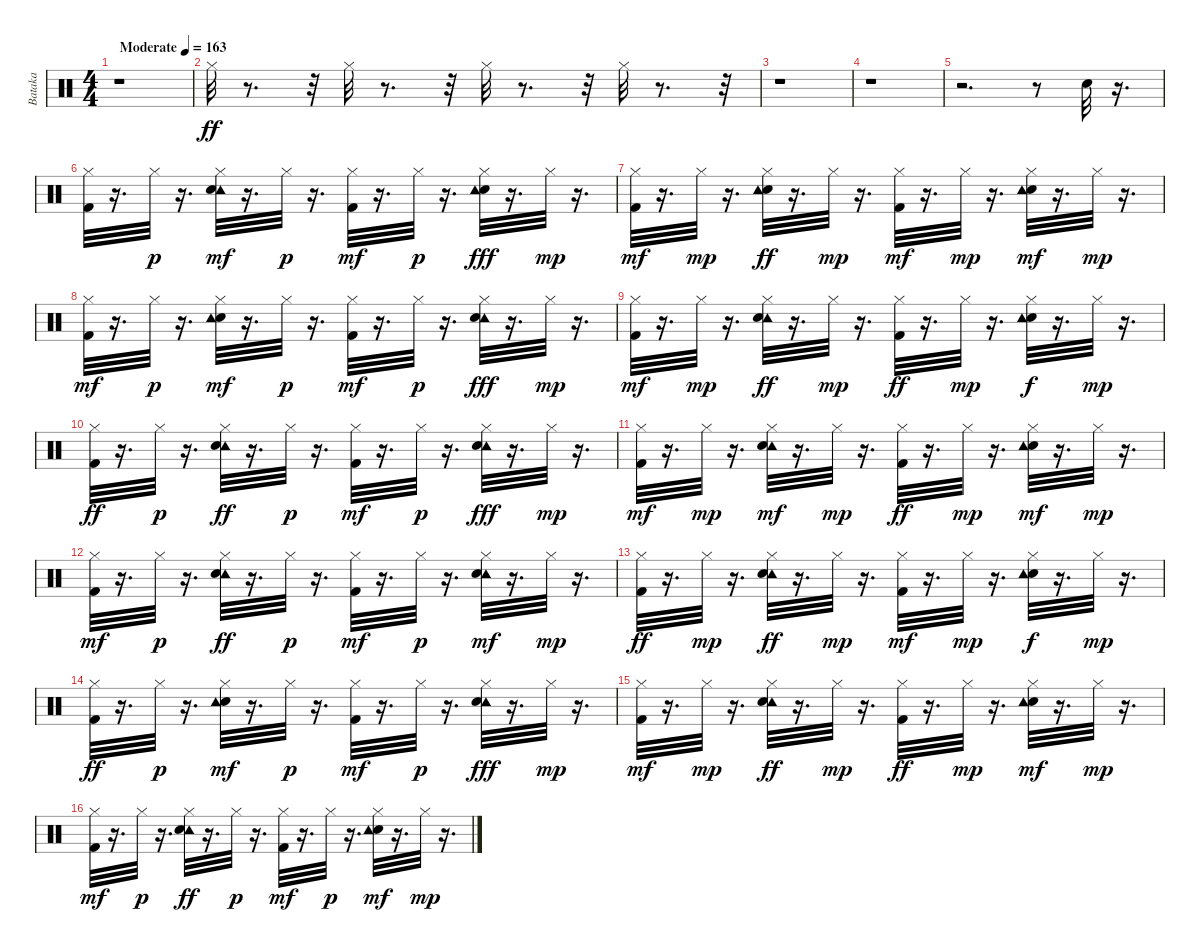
\track ("Bataka" "Bataka") {instrument percussion}
\staff {score}
\articulation defaults
\ts (4 4)
\tempo (163 "Moderate")
\clef neutral
\ks c
r.1{dy ff} |
"Hi-Hat (closed)".32{volume 14} r.8{d} r.32 "Hi-Hat (closed)".32 r.8{d} r.32 "Hi-Hat (closed)".32 r.8{d} r.32 "Hi-Hat (closed)".32 r.8{d} r.32 |
r.1 |
r.1 |
r.2{d} r.8 "Electric Snare (hit)".32 r.16{d} |
("Hi-Hat (closed)" "Kick (hit) 2").32 r.16{d} "Hi-Hat (closed)".32{dy p} r.16{d} ("Tambourine (hit)" "Electric Snare (hit)" "Hi-Hat (closed)").32{dy mf} r.16{d} "Hi-Hat (closed)".32{dy p} r.16{d} ("Hi-Hat (closed)" "Kick (hit) 2").32{dy mf} r.16{d} "Hi-Hat (closed)".32{dy p} r.16{d} ("Hi-Hat (closed)" "Electric Snare (hit)" "Tambourine (hit)").32{dy fff} r.16{d} "Hi-Hat (closed)".32{dy mp} r.16{d} |
("Kick (hit) 2" "Hi-Hat (closed)").32{dy mf} r.16{d} "Hi-Hat (closed)".32{dy mp} r.16{d} ("Electric Snare (hit)" "Hi-Hat (closed)" "Tambourine (hit)").32{dy ff} r.16{d} "Hi-Hat (closed)".32{dy mp} r.16{d} ("Kick (hit) 2" "Hi-Hat (closed)").32{dy mf} r.16{d} "Hi-Hat (closed)".32{dy mp} r.16{d} ("Electric Snare (hit)" "Tambourine (hit)" "Hi-Hat (closed)").32{dy mf} r.16{d} "Hi-Hat (closed)".32{dy mp} r.16{d} |
("Hi-Hat (closed)" "Kick (hit) 2").32{dy mf} r.16{d} "Hi-Hat (closed)".32{dy p} r.16{d} ("Electric Snare (hit)" "Tambourine (hit)" "Hi-Hat (closed)").32{dy mf} r.16{d} "Hi-Hat (closed)".32{dy p} r.16{d} ("Hi-Hat (closed)" "Kick (hit) 2").32{dy mf} r.16{d} "Hi-Hat (closed)".32{dy p} r.16{d} ("Tambourine (hit)" "Hi-Hat (closed)" "Electric Snare (hit)").32{dy fff} r.16{d} "Hi-Hat (closed)".32{dy mp} r.16{d} |
("Kick (hit) 2" "Hi-Hat (closed)").32{dy mf} r.16{d} "Hi-Hat (closed)".32{dy mp} r.16{d} ("Hi-Hat (closed)" "Tambourine (hit)" "Electric Snare (hit)").32{dy ff} r.16{d} "Hi-Hat (closed)".32{dy mp} r.16{d} ("Hi-Hat (closed)" "Kick (hit) 2").32{dy ff} r.16{d} "Hi-Hat (closed)".32{dy mp} r.16{d} ("Electric Snare (hit)" "Hi-Hat (closed)" "Tambourine (hit)").32{dy f} r.16{d} "Hi-Hat (closed)".32{dy mp} r.16{d} |
("Hi-Hat (closed)" "Kick (hit) 2").32{dy ff} r.16{d} "Hi-Hat (closed)".32{dy p} r.16{d} ("Tambourine (hit)" "Hi-Hat (closed)" "Electric Snare (hit)").32{dy ff} r.16{d} "Hi-Hat (closed)".32{dy p} r.16{d} ("Hi-Hat (closed)" "Kick (hit) 2").32{dy mf} r.16{d} "Hi-Hat (closed)".32{dy p} r.16{d} ("Hi-Hat (closed)" "Tambourine (hit)" "Electric Snare (hit)").32{dy fff} r.16{d} "Hi-Hat (closed)".32{dy mp} r.16{d} |
("Kick (hit) 2" "Hi-Hat (closed)").32{dy mf} r.16{d} "Hi-Hat (closed)".32{dy mp} r.16{d} ("Tambourine (hit)" "Electric Snare (hit)" "Hi-Hat (closed)").32{dy mf} r.16{d} "Hi-Hat (closed)".32{dy mp} r.16{d} ("Hi-Hat (closed)" "Kick (hit) 2").32{dy ff} r.16{d} "Hi-Hat (closed)".32{dy mp} r.16{d} ("Electric Snare (hit)" "Tambourine (hit)" "Hi-Hat (closed)").32{dy mf} r.16{d} "Hi-Hat (closed)".32{dy mp} r.16{d} |
("Hi-Hat (closed)" "Kick (hit) 2").32{dy mf} r.16{d} "Hi-Hat (closed)".32{dy p} r.16{d} ("Hi-Hat (closed)" "Tambourine (hit)" "Electric Snare (hit)").32{dy ff} r.16{d} "Hi-Hat (closed)".32{dy p} r.16{d} ("Kick (hit) 2" "Hi-Hat (closed)").32{dy mf} r.16{d} "Hi-Hat (closed)".32{dy p} r.16{d} ("Tambourine (hit)" "Electric Snare (hit)" "Hi-Hat (closed)").32{dy mf} r.16{d} "Hi-Hat (closed)".32{dy mp} r.16{d} |
("Hi-Hat (closed)" "Kick (hit) 2").32{dy ff} r.16{d} "Hi-Hat (closed)".32{dy mp} r.16{d} ("Tambourine (hit)" "Electric Snare (hit)" "Hi-Hat (closed)").32{dy ff} r.16{d} "Hi-Hat (closed)".32{dy mp} r.16{d} ("Kick (hit) 2" "Hi-Hat (closed)").32{dy mf} r.16{d} "Hi-Hat (closed)".32{dy mp} r.16{d} ("Electric Snare (hit)" "Hi-Hat (closed)" "Tambourine (hit)").32{dy f} r.16{d} "Hi-Hat (closed)".32{dy mp} r.16{d} |
("Kick (hit) 2" "Hi-Hat (closed)").32{dy ff} r.16{d} "Hi-Hat (closed)".32{dy p} r.16{d} ("Electric Snare (hit)" "Tambourine (hit)" "Hi-Hat (closed)").32{dy mf} r.16{d} "Hi-Hat (closed)".32{dy p} r.16{d} ("Kick (hit) 2" "Hi-Hat (closed)").32{dy mf} r.16{d} "Hi-Hat (closed)".32{dy p} r.16{d} ("Hi-Hat (closed)" "Tambourine (hit)" "Electric Snare (hit)").32{dy fff} r.16{d} "Hi-Hat (closed)".32{dy mp} r.16{d} |
("Hi-Hat (closed)" "Kick (hit) 2").32{dy mf} r.16{d} "Hi-Hat (closed)".32{dy mp} r.16{d} ("Tambourine (hit)" "Hi-Hat (closed)" "Electric Snare (hit)").32{dy ff} r.16{d} "Hi-Hat (closed)".32{dy mp} r.16{d} ("Hi-Hat (closed)" "Kick (hit) 2").32{dy ff} r.16{d} "Hi-Hat (closed)".32{dy mp} r.16{d} ("Electric Snare (hit)" "Hi-Hat (closed)" "Tambourine (hit)").32{dy mf} r.16{d} "Hi-Hat (closed)".32{dy mp} r.16{d} |
("Hi-Hat (closed)" "Kick (hit) 2").32{dy mf} r.16{d} "Hi-Hat (closed)".32{dy p} r.16{d} ("Tambourine (hit)" "Hi-Hat (closed)" "Electric Snare (hit)").32{dy ff} r.16{d} "Hi-Hat (closed)".32{dy p} r.16{d} ("Kick (hit) 2" "Hi-Hat (closed)").32{dy mf} r.16{d} "Hi-Hat (closed)".32{dy p} r.16{d} ("Electric Snare (hit)" "Tambourine (hit)" "Hi-Hat (closed)").32{dy mf} r.16{d} "Hi-Hat (closed)".32{dy mp} r.16{d}
